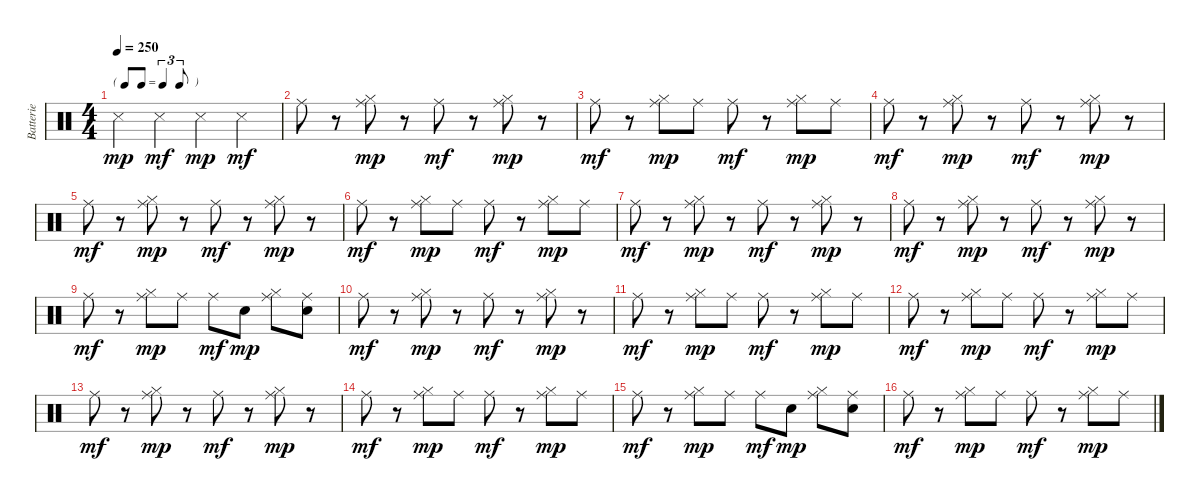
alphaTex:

\track ("Batterie" "Batterie") {instrument percussion}
\staff {score}
\articulation defaults
\ts (4 4)
\tf triplet8th
\tempo 250
\clef neutral
\ks c "Snare (side stick) 3".4{dy mp} "Snare (side stick) 3".4{dy mf} "Snare (side stick) 3".4{dy mp} "Snare (side stick) 3".4{dy mf}
|
"Ride (middle)".8 r.8 ("Hi-Hat (closed)" "Ride (middle)").8{dy mp} r.8 "Ride (middle)".8{dy mf} r.8 ("Hi-Hat (closed)" "Ride (middle)").8{dy mp} r.8 |
"Ride (middle)".8{dy mf} r.8 ("Hi-Hat (closed)" "Ride (middle)").8{dy mp} "Ride (middle)".8 "Ride (middle)".8{dy mf} r.8 ("Hi-Hat (closed)" "Ride (middle)").8{dy mp} "Ride (middle)".8 |
"Ride (middle)".8{dy mf} r.8 ("Hi-Hat (closed)" "Ride (middle)").8{dy mp} r.8 "Ride (middle)".8{dy mf} r.8 ("Hi-Hat (closed)" "Ride (middle)").8{dy mp} r.8 |
"Ride (middle)".8{dy mf} r.8 ("Hi-Hat (closed)" "Ride (middle)").8{dy mp} r.8 "Ride (middle)".8{dy mf} r.8 ("Hi-Hat (closed)" "Ride (middle)").8{dy mp} r.8 |
"Ride (middle)".8{dy mf} r.8 ("Hi-Hat (closed)" "Ride (middle)").8{dy mp} "Ride (middle)".8 "Ride (middle)".8{dy mf} r.8 ("Hi-Hat (closed)" "Ride (middle)").8{dy mp} "Ride (middle)".8 |
"Ride (middle)".8{dy mf} r.8 ("Hi-Hat (closed)" "Ride (middle)").8{dy mp} r.8 "Ride (middle)".8{dy mf} r.8 ("Hi-Hat (closed)" "Ride (middle)").8{dy mp} r.8 |
"Ride (middle)".8{dy mf} r.8 ("Hi-Hat (closed)" "Ride (middle)").8{dy mp} r.8 "Ride (middle)".8{dy mf} r.8 ("Hi-Hat (closed)" "Ride (middle)").8{dy mp} r.8 |
"Ride (middle)".8{dy mf} r.8 ("Hi-Hat (closed)" "Ride (middle)").8{dy mp} "Ride (middle)".8 "Ride (middle)".8{dy mf} "Snare (hit) 2".8{dy mp} ("Hi-Hat (closed)" "Ride (middle)").8 ("Snare (hit) 2" "Ride (middle)").8 |
"Ride (middle)".8{dy mf} r.8 ("Hi-Hat (closed)" "Ride (middle)").8{dy mp} r.8 "Ride (middle)".8{dy mf} r.8 ("Hi-Hat (closed)" "Ride (middle)").8{dy mp} r.8 |
"Ride (middle)".8{dy mf} r.8 ("Hi-Hat (closed)" "Ride (middle)").8{dy mp} "Ride (middle)".8 "Ride (middle)".8{dy mf} r.8 ("Hi-Hat (closed)" "Ride (middle)").8{dy mp} "Ride (middle)".8 |
"Ride (middle)".8{dy mf} r.8 ("Hi-Hat (closed)" "Ride (middle)").8{dy mp} "Ride (middle)".8 "Ride (middle)".8{dy mf} r.8 ("Hi-Hat (closed)" "Ride (middle)").8{dy mp} "Ride (middle)".8 |
"Ride (middle)".8{dy mf} r.8 ("Hi-Hat (closed)" "Ride (middle)").8{dy mp} r.8 "Ride (middle)".8{dy mf} r.8 ("Hi-Hat (closed)" "Ride (middle)").8{dy mp} r.8 |
"Ride (middle)".8{dy mf} r.8 ("Hi-Hat (closed)" "Ride (middle)").8{dy mp} "Ride (middle)".8 "Ride (middle)".8{dy mf} r.8 ("Hi-Hat (closed)" "Ride (middle)").8{dy mp} "Ride (middle)".8 |
"Ride (middle)".8{dy mf} r.8 ("Hi-Hat (closed)" "Ride (middle)").8{dy mp} "Ride (middle)".8 "Ride (middle)".8{dy mf} "Snare (hit) 2".8{dy mp} ("Hi-Hat (closed)" "Ride (middle)").8 ("Snare (hit) 2" "Ride (middle)").8 |
"Ride (middle)".8{dy mf} r.8 ("Hi-Hat (closed)" "Ride (middle)").8{dy mp} "Ride (middle)".8 "Ride (middle)".8{dy mf} r.8 ("Hi-Hat (closed)" "Ride (middle)").8{dy mp} "Ride (middle)".8
